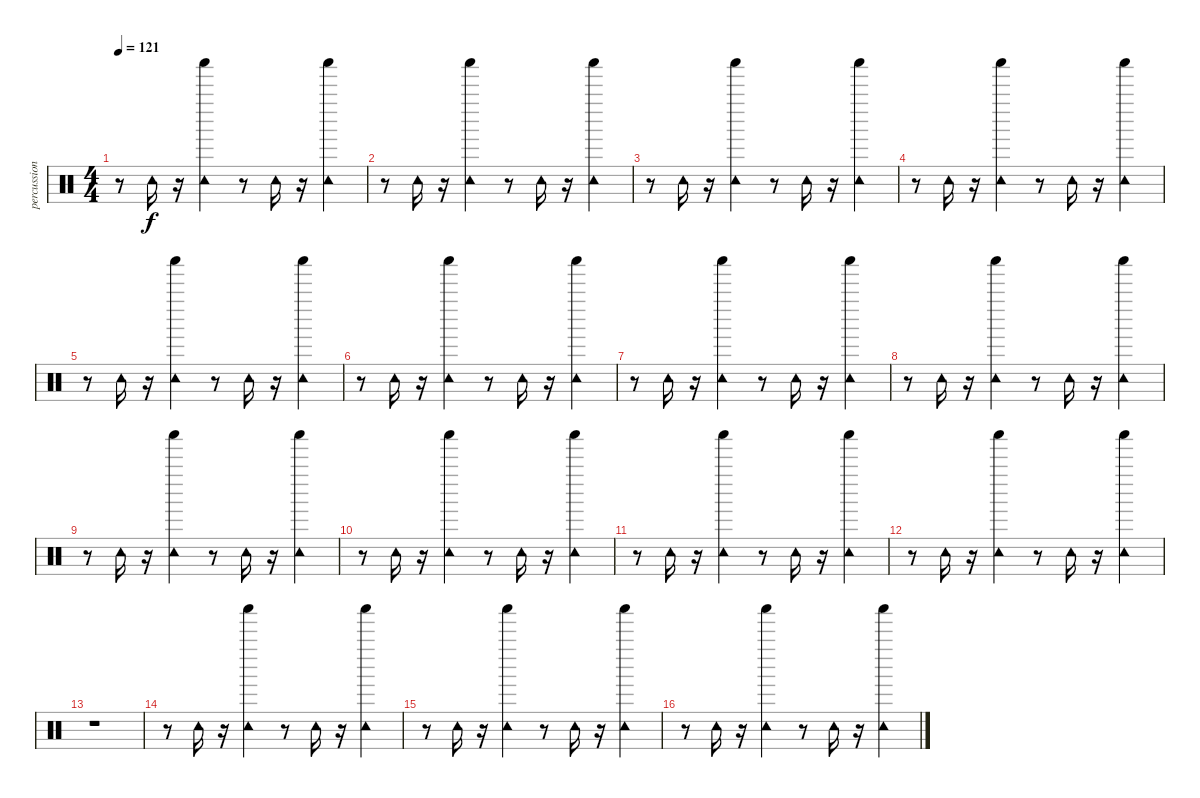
\track ("percussion" "percussion") {instrument percussion}
\staff {score}
\articulation defaults
\ts (4 4)
\tempo 121
\clef neutral
\ks c
r.8{dy f} "Tambourine (hit)".16 r.16 ("Tambourine (hit)" "Shaker (hit)").4 r.8 "Tambourine (hit)".16 r.16 ("Tambourine (hit)" "Shaker (hit)").4 |
r.8 "Tambourine (hit)".16 r.16 ("Tambourine (hit)" "Shaker (hit)").4 r.8 "Tambourine (hit)".16 r.16 ("Tambourine (hit)" "Shaker (hit)").4 |
r.8 "Tambourine (hit)".16 r.16 ("Tambourine (hit)" "Shaker (hit)").4 r.8 "Tambourine (hit)".16 r.16 ("Tambourine (hit)" "Shaker (hit)").4 |
r.8 "Tambourine (hit)".16 r.16 ("Tambourine (hit)" "Shaker (hit)").4 r.8 "Tambourine (hit)".16 r.16 ("Tambourine (hit)" "Shaker (hit)").4 |
r.8 "Tambourine (hit)".16 r.16 ("Tambourine (hit)" "Shaker (hit)").4 r.8 "Tambourine (hit)".16 r.16 ("Tambourine (hit)" "Shaker (hit)").4 |
r.8 "Tambourine (hit)".16 r.16 ("Tambourine (hit)" "Shaker (hit)").4 r.8 "Tambourine (hit)".16 r.16 ("Tambourine (hit)" "Shaker (hit)").4 |
r.8 "Tambourine (hit)".16 r.16 ("Tambourine (hit)" "Shaker (hit)").4 r.8 "Tambourine (hit)".16 r.16 ("Tambourine (hit)" "Shaker (hit)").4 |
r.8 "Tambourine (hit)".16 r.16 ("Tambourine (hit)" "Shaker (hit)").4 r.8 "Tambourine (hit)".16 r.16 ("Tambourine (hit)" "Shaker (hit)").4 |
r.8 "Tambourine (hit)".16 r.16 ("Tambourine (hit)" "Shaker (hit)").4 r.8 "Tambourine (hit)".16 r.16 ("Tambourine (hit)" "Shaker (hit)").4 |
r.8 "Tambourine (hit)".16 r.16 ("Tambourine (hit)" "Shaker (hit)").4 r.8 "Tambourine (hit)".16 r.16 ("Tambourine (hit)" "Shaker (hit)").4 |
r.8 "Tambourine (hit)".16 r.16 ("Tambourine (hit)" "Shaker (hit)").4 r.8 "Tambourine (hit)".16 r.16 ("Tambourine (hit)" "Shaker (hit)").4 |
r.8 "Tambourine (hit)".16 r.16 ("Tambourine (hit)" "Shaker (hit)").4 r.8 "Tambourine (hit)".16 r.16 ("Tambourine (hit)" "Shaker (hit)").4 |
r.1 |
r.8 "Tambourine (hit)".16 r.16 ("Tambourine (hit)" "Shaker (hit)").4 r.8 "Tambourine (hit)".16 r.16 ("Tambourine (hit)" "Shaker (hit)").4 |
r.8 "Tambourine (hit)".16 r.16 ("Tambourine (hit)" "Shaker (hit)").4 r.8 "Tambourine (hit)".16 r.16 ("Tambourine (hit)" "Shaker (hit)").4 |
r.8 "Tambourine (hit)".16 r.16 ("Tambourine (hit)" "Shaker (hit)").4 r.8 "Tambourine (hit)".16 r.16 ("Tambourine (hit)" "Shaker (hit)").4
